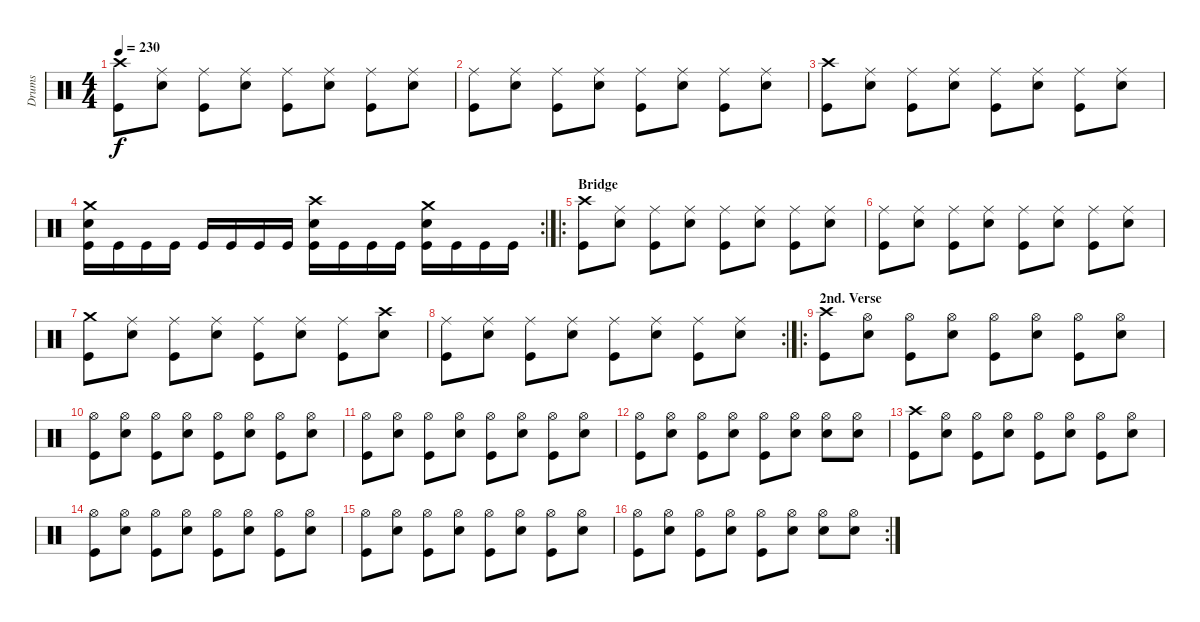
\track ("Drums" "Drums") {instrument percussion}
\staff {score}
\articulation defaults
\ts (4 4)
\tempo 230
\clef neutral
\ks c
("Crash high (hit)" "Kick (hit)").8{dy f} ("Ride (middle)" "Electric Snare (hit)").8 ("Ride (middle)" "Kick (hit)").8 ("Ride (middle)" "Electric Snare (hit)").8 ("Ride (middle)" "Kick (hit)").8 ("Ride (middle)" "Electric Snare (hit)").8 ("Ride (middle)" "Kick (hit)").8 ("Ride (middle)" "Electric Snare (hit)").8 |
("Ride (middle)" "Kick (hit)").8 ("Ride (middle)" "Electric Snare (hit)").8 ("Ride (middle)" "Kick (hit)").8 ("Ride (middle)" "Electric Snare (hit)").8 ("Ride (middle)" "Kick (hit)").8 ("Ride (middle)" "Electric Snare (hit)").8 ("Ride (middle)" "Kick (hit)").8 ("Ride (middle)" "Electric Snare (hit)").8 |
("Crash high (hit)" "Kick (hit)").8 ("Ride (middle)" "Electric Snare (hit)").8 ("Ride (middle)" "Kick (hit)").8 ("Ride (middle)" "Electric Snare (hit)").8 ("Ride (middle)" "Kick (hit)").8 ("Ride (middle)" "Electric Snare (hit)").8 ("Ride (middle)" "Kick (hit)").8 ("Ride (middle)" "Electric Snare (hit)").8 |
\rc 2
("Crash medium (hit)" "Electric Snare (hit)" "Kick (hit)").16 "Kick (hit)".16 "Kick (hit)".16 "Kick (hit)".16 "Kick (hit)".16 "Kick (hit)".16 "Kick (hit)".16 "Kick (hit)".16 ("Crash high (hit)" "Electric Snare (hit)" "Kick (hit)").16 "Kick (hit)".16 "Kick (hit)".16 "Kick (hit)".16 ("Crash medium (hit)" "Electric Snare (hit)" "Kick (hit)").16 "Kick (hit)".16 "Kick (hit)".16 "Kick (hit)".16 |
\ro
\section ("" "Bridge")
("Crash high (hit)" "Kick (hit)").8 ("Ride (middle)" "Electric Snare (hit)").8 ("Ride (middle)" "Kick (hit)").8 ("Ride (middle)" "Electric Snare (hit)").8 ("Ride (middle)" "Kick (hit)").8 ("Ride (middle)" "Electric Snare (hit)").8 ("Ride (middle)" "Kick (hit)").8 ("Ride (middle)" "Electric Snare (hit)").8 |
("Ride (middle)" "Kick (hit)").8 ("Ride (middle)" "Electric Snare (hit)").8 ("Ride (middle)" "Kick (hit)").8 ("Ride (middle)" "Electric Snare (hit)").8 ("Ride (middle)" "Kick (hit)").8 ("Ride (middle)" "Electric Snare (hit)").8 ("Ride (middle)" "Kick (hit)").8 ("Ride (middle)" "Electric Snare (hit)").8 |
("Crash medium (hit)" "Kick (hit)").8 ("Ride (middle)" "Electric Snare (hit)").8 ("Ride (middle)" "Kick (hit)").8 ("Ride (middle)" "Electric Snare (hit)").8 ("Ride (middle)" "Kick (hit)").8 ("Ride (middle)" "Electric Snare (hit)").8 ("Ride (middle)" "Kick (hit)").8 ("Crash high (hit)" "Electric Snare (hit)").8 |
\rc 2
("Ride (middle)" "Kick (hit)").8 ("Ride (middle)" "Electric Snare (hit)").8 ("Ride (middle)" "Kick (hit)").8 ("Ride (middle)" "Electric Snare (hit)").8 ("Ride (middle)" "Kick (hit)").8 ("Ride (middle)" "Electric Snare (hit)").8 ("Ride (middle)" "Kick (hit)").8 ("Ride (middle)" "Electric Snare (hit)").8 |
\ro
\section ("" "2nd. Verse")
("Crash high (hit)" "Kick (hit)").8 ("Hi-Hat (open)" "Electric Snare (hit)").8 ("Hi-Hat (open)" "Kick (hit)").8 ("Hi-Hat (open)" "Electric Snare (hit)").8 ("Hi-Hat (open)" "Kick (hit)").8 ("Hi-Hat (open)" "Electric Snare (hit)").8 ("Hi-Hat (open)" "Kick (hit)").8 ("Hi-Hat (open)" "Electric Snare (hit)").8 |
("Hi-Hat (open)" "Kick (hit)").8 ("Hi-Hat (open)" "Electric Snare (hit)").8 ("Hi-Hat (open)" "Kick (hit)").8 ("Hi-Hat (open)" "Electric Snare (hit)").8 ("Hi-Hat (open)" "Kick (hit)").8 ("Hi-Hat (open)" "Electric Snare (hit)").8 ("Hi-Hat (open)" "Kick (hit)").8 ("Hi-Hat (open)" "Electric Snare (hit)").8 |
("Hi-Hat (open)" "Kick (hit)").8 ("Hi-Hat (open)" "Electric Snare (hit)").8 ("Hi-Hat (open)" "Kick (hit)").8 ("Hi-Hat (open)" "Electric Snare (hit)").8 ("Hi-Hat (open)" "Kick (hit)").8 ("Hi-Hat (open)" "Electric Snare (hit)").8 ("Hi-Hat (open)" "Kick (hit)").8 ("Hi-Hat (open)" "Electric Snare (hit)").8 |
("Hi-Hat (open)" "Kick (hit)").8 ("Hi-Hat (open)" "Electric Snare (hit)").8 ("Hi-Hat (open)" "Kick (hit)").8 ("Hi-Hat (open)" "Electric Snare (hit)").8 ("Hi-Hat (open)" "Kick (hit)").8 ("Hi-Hat (open)" "Electric Snare (hit)").8 ("Hi-Hat (open)" "Electric Snare (hit)").8 ("Hi-Hat (open)" "Electric Snare (hit)").8 |
("Crash high (hit)" "Kick (hit)").8 ("Hi-Hat (open)" "Electric Snare (hit)").8 ("Hi-Hat (open)" "Kick (hit)").8 ("Hi-Hat (open)" "Electric Snare (hit)").8 ("Hi-Hat (open)" "Kick (hit)").8 ("Hi-Hat (open)" "Electric Snare (hit)").8 ("Hi-Hat (open)" "Kick (hit)").8 ("Hi-Hat (open)" "Electric Snare (hit)").8 |
("Hi-Hat (open)" "Kick (hit)").8 ("Hi-Hat (open)" "Electric Snare (hit)").8 ("Hi-Hat (open)" "Kick (hit)").8 ("Hi-Hat (open)" "Electric Snare (hit)").8 ("Hi-Hat (open)" "Kick (hit)").8 ("Hi-Hat (open)" "Electric Snare (hit)").8 ("Hi-Hat (open)" "Kick (hit)").8 ("Hi-Hat (open)" "Electric Snare (hit)").8 |
("Hi-Hat (open)" "Kick (hit)").8 ("Hi-Hat (open)" "Electric Snare (hit)").8 ("Hi-Hat (open)" "Kick (hit)").8 ("Hi-Hat (open)" "Electric Snare (hit)").8 ("Hi-Hat (open)" "Kick (hit)").8 ("Hi-Hat (open)" "Electric Snare (hit)").8 ("Hi-Hat (open)" "Kick (hit)").8 ("Hi-Hat (open)" "Electric Snare (hit)").8 |
\rc 2
("Hi-Hat (open)" "Kick (hit)").8 ("Hi-Hat (open)" "Electric Snare (hit)").8 ("Hi-Hat (open)" "Kick (hit)").8 ("Hi-Hat (open)" "Electric Snare (hit)").8 ("Hi-Hat (open)" "Kick (hit)").8 ("Hi-Hat (open)" "Electric Snare (hit)").8 ("Hi-Hat (open)" "Electric Snare (hit)").8 ("Hi-Hat (open)" "Electric Snare (hit)").8
